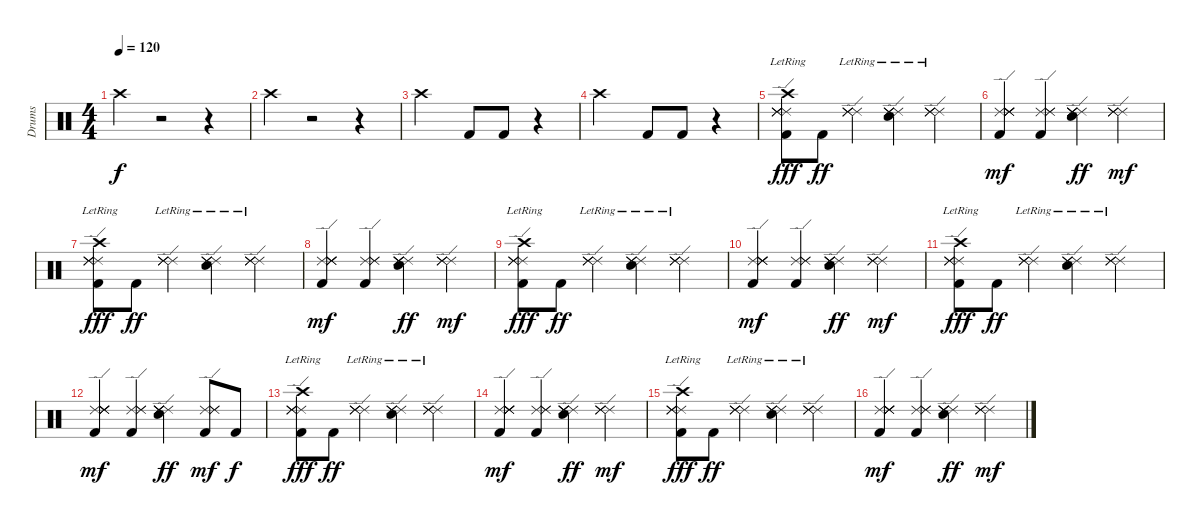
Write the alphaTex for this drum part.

\track ("Drums" "Drums") {instrument percussion}
\staff {score}
\articulation defaults
\ts (4 4)
\tempo 120
\clef neutral
\ks c "Crash high (hit)".4{dy f}
r.2 r.4 |
"Crash high (hit)".4 r.2 r.4 |
"Crash high (hit)".2 "Kick (hit) 2".8 "Kick (hit) 2".8 r.4 |
"Crash high (hit)".2 "Kick (hit) 2".8 "Kick (hit) 2".8 r.4 |
("Kick (hit) 2" "Crash high (hit)"{lr} "Ride (edge) 2" "Ride (edge) 2" "Ride (edge) 2" "Ride (edge) 2").8{dy fff} "Kick (hit) 2".8{dy ff} ("Ride (edge) 2" "Ride (edge) 2" "Ride (edge) 2" "Ride (edge) 2"{lr}).4 ("Ride (edge) 2" "Ride (edge) 2" "Ride (edge) 2" "Ride (edge) 2"{lr} "Snare (hit) 2"{lr}).4 ("Ride (edge) 2" "Ride (edge) 2" "Ride (edge) 2" "Ride (edge) 2"{lr}).4 |
("Kick (hit) 2" "Ride (edge) 2" "Ride (edge) 2" "Ride (edge) 2" "Ride (edge) 2" "Ride (edge) 2").4{dy mf} ("Kick (hit) 2" "Ride (edge) 2" "Ride (edge) 2" "Ride (edge) 2").4 ("Ride (edge) 2" "Ride (edge) 2" "Ride (edge) 2" "Ride (edge) 2" "Ride (edge) 2" "Snare (hit) 2").4{dy ff} ("Ride (edge) 2" "Ride (edge) 2" "Ride (edge) 2" "Ride (edge) 2").4{dy mf} |
("Kick (hit) 2" "Crash high (hit)"{lr} "Ride (edge) 2" "Ride (edge) 2" "Ride (edge) 2" "Ride (edge) 2").8{dy fff} "Kick (hit) 2".8{dy ff} ("Ride (edge) 2" "Ride (edge) 2" "Ride (edge) 2" "Ride (edge) 2"{lr}).4 ("Ride (edge) 2" "Ride (edge) 2" "Ride (edge) 2" "Ride (edge) 2"{lr} "Snare (hit) 2"{lr}).4 ("Ride (edge) 2" "Ride (edge) 2" "Ride (edge) 2" "Ride (edge) 2"{lr}).4 |
("Kick (hit) 2" "Ride (edge) 2" "Ride (edge) 2" "Ride (edge) 2" "Ride (edge) 2" "Ride (edge) 2").4{dy mf} ("Kick (hit) 2" "Ride (edge) 2" "Ride (edge) 2" "Ride (edge) 2").4 ("Ride (edge) 2" "Ride (edge) 2" "Ride (edge) 2" "Ride (edge) 2" "Ride (edge) 2" "Snare (hit) 2").4{dy ff} ("Ride (edge) 2" "Ride (edge) 2" "Ride (edge) 2" "Ride (edge) 2").4{dy mf} |
("Kick (hit) 2" "Crash high (hit)"{lr} "Ride (edge) 2" "Ride (edge) 2" "Ride (edge) 2" "Ride (edge) 2").8{dy fff} "Kick (hit) 2".8{dy ff} ("Ride (edge) 2" "Ride (edge) 2" "Ride (edge) 2" "Ride (edge) 2"{lr}).4 ("Ride (edge) 2" "Ride (edge) 2" "Ride (edge) 2" "Ride (edge) 2"{lr} "Snare (hit) 2"{lr}).4 ("Ride (edge) 2" "Ride (edge) 2" "Ride (edge) 2" "Ride (edge) 2"{lr}).4 |
("Kick (hit) 2" "Ride (edge) 2" "Ride (edge) 2" "Ride (edge) 2" "Ride (edge) 2" "Ride (edge) 2").4{dy mf} ("Kick (hit) 2" "Ride (edge) 2" "Ride (edge) 2" "Ride (edge) 2").4 ("Ride (edge) 2" "Ride (edge) 2" "Ride (edge) 2" "Ride (edge) 2" "Ride (edge) 2" "Snare (hit) 2").4{dy ff} ("Ride (edge) 2" "Ride (edge) 2" "Ride (edge) 2" "Ride (edge) 2").4{dy mf} |
("Kick (hit) 2" "Crash high (hit)"{lr} "Ride (edge) 2" "Ride (edge) 2" "Ride (edge) 2" "Ride (edge) 2").8{dy fff} "Kick (hit) 2".8{dy ff} ("Ride (edge) 2" "Ride (edge) 2" "Ride (edge) 2" "Ride (edge) 2"{lr}).4 ("Ride (edge) 2" "Ride (edge) 2" "Ride (edge) 2" "Ride (edge) 2"{lr} "Snare (hit) 2"{lr}).4 ("Ride (edge) 2" "Ride (edge) 2" "Ride (edge) 2" "Ride (edge) 2"{lr}).4 |
("Kick (hit) 2" "Ride (edge) 2" "Ride (edge) 2" "Ride (edge) 2" "Ride (edge) 2" "Ride (edge) 2").4{dy mf} ("Kick (hit) 2" "Ride (edge) 2" "Ride (edge) 2" "Ride (edge) 2").4 ("Ride (edge) 2" "Ride (edge) 2" "Ride (edge) 2" "Ride (edge) 2" "Ride (edge) 2" "Snare (hit) 2").4{dy ff} ("Kick (hit) 2" "Ride (edge) 2" "Ride (edge) 2" "Ride (edge) 2").8{dy mf} "Kick (hit) 2".8{dy f} |
("Kick (hit) 2" "Crash high (hit)"{lr} "Ride (edge) 2" "Ride (edge) 2" "Ride (edge) 2" "Ride (edge) 2").8{dy fff} "Kick (hit) 2".8{dy ff} ("Ride (edge) 2" "Ride (edge) 2" "Ride (edge) 2" "Ride (edge) 2"{lr}).4 ("Ride (edge) 2" "Ride (edge) 2" "Ride (edge) 2" "Ride (edge) 2"{lr} "Snare (hit) 2"{lr}).4 ("Ride (edge) 2" "Ride (edge) 2" "Ride (edge) 2" "Ride (edge) 2"{lr}).4 |
("Kick (hit) 2" "Ride (edge) 2" "Ride (edge) 2" "Ride (edge) 2" "Ride (edge) 2" "Ride (edge) 2").4{dy mf} ("Kick (hit) 2" "Ride (edge) 2" "Ride (edge) 2" "Ride (edge) 2").4 ("Ride (edge) 2" "Ride (edge) 2" "Ride (edge) 2" "Ride (edge) 2" "Ride (edge) 2" "Snare (hit) 2").4{dy ff} ("Ride (edge) 2" "Ride (edge) 2" "Ride (edge) 2" "Ride (edge) 2").4{dy mf} |
("Kick (hit) 2" "Crash high (hit)"{lr} "Ride (edge) 2" "Ride (edge) 2" "Ride (edge) 2" "Ride (edge) 2").8{dy fff} "Kick (hit) 2".8{dy ff} ("Ride (edge) 2" "Ride (edge) 2" "Ride (edge) 2" "Ride (edge) 2"{lr}).4 ("Ride (edge) 2" "Ride (edge) 2" "Ride (edge) 2" "Ride (edge) 2"{lr} "Snare (hit) 2"{lr}).4 ("Ride (edge) 2" "Ride (edge) 2" "Ride (edge) 2" "Ride (edge) 2"{lr}).4 |
("Kick (hit) 2" "Ride (edge) 2" "Ride (edge) 2" "Ride (edge) 2" "Ride (edge) 2" "Ride (edge) 2").4{dy mf} ("Kick (hit) 2" "Ride (edge) 2" "Ride (edge) 2" "Ride (edge) 2").4 ("Ride (edge) 2" "Ride (edge) 2" "Ride (edge) 2" "Ride (edge) 2" "Ride (edge) 2" "Snare (hit) 2").4{dy ff} ("Ride (edge) 2" "Ride (edge) 2" "Ride (edge) 2" "Ride (edge) 2").4{dy mf}
